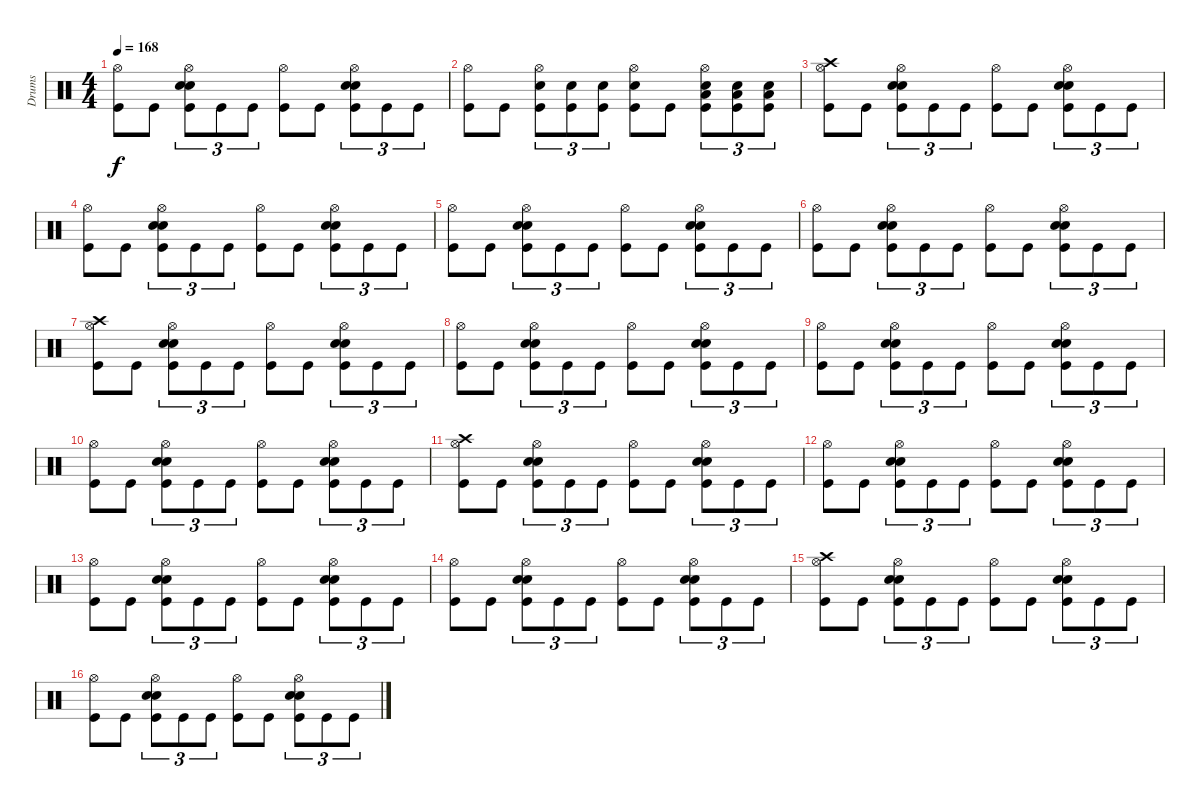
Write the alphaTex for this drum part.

\track ("Drums" "Drums") {instrument percussion}
\staff {score}
\articulation defaults
\ts (4 4)
\tempo 168
\clef neutral
\ks c
("Hi-Hat (open)" "Kick (hit)").8{dy f} "Kick (hit)".8 ("Electric Snare (hit)" "Electric Snare (hit)" "Hi-Hat (open)" "Kick (hit)").8{tu (3 2)} "Kick (hit)".8{tu (3 2)} "Kick (hit)".8{tu (3 2)} ("Hi-Hat (open)" "Kick (hit)").8 "Kick (hit)".8 ("Electric Snare (hit)" "Electric Snare (hit)" "Hi-Hat (open)" "Kick (hit)").8{tu (3 2)} "Kick (hit)".8{tu (3 2)} "Kick (hit)".8{tu (3 2)} |
("Hi-Hat (open)" "Kick (hit)").8 "Kick (hit)".8 ("Electric Snare (hit)" "Hi-Hat (open)" "Kick (hit)").8{tu (3 2)} ("Electric Snare (hit)" "Kick (hit)").8{tu (3 2)} ("Electric Snare (hit)" "Kick (hit)").8{tu (3 2)} ("Electric Snare (hit)" "Hi-Hat (open)" "Kick (hit)").8 "Kick (hit)".8 ("Low Floor Tom (hit)" "Electric Snare (hit)" "Hi-Hat (open)" "Kick (hit)").8{tu (3 2)} ("Low Floor Tom (hit)" "Electric Snare (hit)" "Kick (hit)").8{tu (3 2)} ("Low Floor Tom (hit)" "Electric Snare (hit)" "Kick (hit)").8{tu (3 2)} |
("Crash high (hit)" "Hi-Hat (open)" "Kick (hit)").8 "Kick (hit)".8 ("Electric Snare (hit)" "Electric Snare (hit)" "Hi-Hat (open)" "Kick (hit)").8{tu (3 2)} "Kick (hit)".8{tu (3 2)} "Kick (hit)".8{tu (3 2)} ("Hi-Hat (open)" "Kick (hit)").8 "Kick (hit)".8 ("Electric Snare (hit)" "Electric Snare (hit)" "Hi-Hat (open)" "Kick (hit)").8{tu (3 2)} "Kick (hit)".8{tu (3 2)} "Kick (hit)".8{tu (3 2)} |
("Hi-Hat (open)" "Kick (hit)").8 "Kick (hit)".8 ("Electric Snare (hit)" "Electric Snare (hit)" "Hi-Hat (open)" "Kick (hit)").8{tu (3 2)} "Kick (hit)".8{tu (3 2)} "Kick (hit)".8{tu (3 2)} ("Hi-Hat (open)" "Kick (hit)").8 "Kick (hit)".8 ("Electric Snare (hit)" "Electric Snare (hit)" "Hi-Hat (open)" "Kick (hit)").8{tu (3 2)} "Kick (hit)".8{tu (3 2)} "Kick (hit)".8{tu (3 2)} |
("Hi-Hat (open)" "Kick (hit)").8 "Kick (hit)".8 ("Electric Snare (hit)" "Electric Snare (hit)" "Hi-Hat (open)" "Kick (hit)").8{tu (3 2)} "Kick (hit)".8{tu (3 2)} "Kick (hit)".8{tu (3 2)} ("Hi-Hat (open)" "Kick (hit)").8 "Kick (hit)".8 ("Electric Snare (hit)" "Electric Snare (hit)" "Hi-Hat (open)" "Kick (hit)").8{tu (3 2)} "Kick (hit)".8{tu (3 2)} "Kick (hit)".8{tu (3 2)} |
("Hi-Hat (open)" "Kick (hit)").8 "Kick (hit)".8 ("Electric Snare (hit)" "Electric Snare (hit)" "Hi-Hat (open)" "Kick (hit)").8{tu (3 2)} "Kick (hit)".8{tu (3 2)} "Kick (hit)".8{tu (3 2)} ("Hi-Hat (open)" "Kick (hit)").8 "Kick (hit)".8 ("Electric Snare (hit)" "Electric Snare (hit)" "Hi-Hat (open)" "Kick (hit)").8{tu (3 2)} "Kick (hit)".8{tu (3 2)} "Kick (hit)".8{tu (3 2)} |
("Crash high (hit)" "Hi-Hat (open)" "Kick (hit)").8 "Kick (hit)".8 ("Electric Snare (hit)" "Electric Snare (hit)" "Hi-Hat (open)" "Kick (hit)").8{tu (3 2)} "Kick (hit)".8{tu (3 2)} "Kick (hit)".8{tu (3 2)} ("Hi-Hat (open)" "Kick (hit)").8 "Kick (hit)".8 ("Electric Snare (hit)" "Electric Snare (hit)" "Hi-Hat (open)" "Kick (hit)").8{tu (3 2)} "Kick (hit)".8{tu (3 2)} "Kick (hit)".8{tu (3 2)} |
("Hi-Hat (open)" "Kick (hit)").8 "Kick (hit)".8 ("Electric Snare (hit)" "Electric Snare (hit)" "Hi-Hat (open)" "Kick (hit)").8{tu (3 2)} "Kick (hit)".8{tu (3 2)} "Kick (hit)".8{tu (3 2)} ("Hi-Hat (open)" "Kick (hit)").8 "Kick (hit)".8 ("Electric Snare (hit)" "Electric Snare (hit)" "Hi-Hat (open)" "Kick (hit)").8{tu (3 2)} "Kick (hit)".8{tu (3 2)} "Kick (hit)".8{tu (3 2)} |
("Hi-Hat (open)" "Kick (hit)").8 "Kick (hit)".8 ("Electric Snare (hit)" "Electric Snare (hit)" "Hi-Hat (open)" "Kick (hit)").8{tu (3 2)} "Kick (hit)".8{tu (3 2)} "Kick (hit)".8{tu (3 2)} ("Hi-Hat (open)" "Kick (hit)").8 "Kick (hit)".8 ("Electric Snare (hit)" "Electric Snare (hit)" "Hi-Hat (open)" "Kick (hit)").8{tu (3 2)} "Kick (hit)".8{tu (3 2)} "Kick (hit)".8{tu (3 2)} |
("Hi-Hat (open)" "Kick (hit)").8 "Kick (hit)".8 ("Electric Snare (hit)" "Electric Snare (hit)" "Hi-Hat (open)" "Kick (hit)").8{tu (3 2)} "Kick (hit)".8{tu (3 2)} "Kick (hit)".8{tu (3 2)} ("Hi-Hat (open)" "Kick (hit)").8 "Kick (hit)".8 ("Electric Snare (hit)" "Electric Snare (hit)" "Hi-Hat (open)" "Kick (hit)").8{tu (3 2)} "Kick (hit)".8{tu (3 2)} "Kick (hit)".8{tu (3 2)} |
("Crash high (hit)" "Hi-Hat (open)" "Kick (hit)").8 "Kick (hit)".8 ("Electric Snare (hit)" "Electric Snare (hit)" "Hi-Hat (open)" "Kick (hit)").8{tu (3 2)} "Kick (hit)".8{tu (3 2)} "Kick (hit)".8{tu (3 2)} ("Hi-Hat (open)" "Kick (hit)").8 "Kick (hit)".8 ("Electric Snare (hit)" "Electric Snare (hit)" "Hi-Hat (open)" "Kick (hit)").8{tu (3 2)} "Kick (hit)".8{tu (3 2)} "Kick (hit)".8{tu (3 2)} |
("Hi-Hat (open)" "Kick (hit)").8 "Kick (hit)".8 ("Electric Snare (hit)" "Electric Snare (hit)" "Hi-Hat (open)" "Kick (hit)").8{tu (3 2)} "Kick (hit)".8{tu (3 2)} "Kick (hit)".8{tu (3 2)} ("Hi-Hat (open)" "Kick (hit)").8 "Kick (hit)".8 ("Electric Snare (hit)" "Electric Snare (hit)" "Hi-Hat (open)" "Kick (hit)").8{tu (3 2)} "Kick (hit)".8{tu (3 2)} "Kick (hit)".8{tu (3 2)} |
("Hi-Hat (open)" "Kick (hit)").8 "Kick (hit)".8 ("Electric Snare (hit)" "Electric Snare (hit)" "Hi-Hat (open)" "Kick (hit)").8{tu (3 2)} "Kick (hit)".8{tu (3 2)} "Kick (hit)".8{tu (3 2)} ("Hi-Hat (open)" "Kick (hit)").8 "Kick (hit)".8 ("Electric Snare (hit)" "Electric Snare (hit)" "Hi-Hat (open)" "Kick (hit)").8{tu (3 2)} "Kick (hit)".8{tu (3 2)} "Kick (hit)".8{tu (3 2)} |
("Hi-Hat (open)" "Kick (hit)").8 "Kick (hit)".8 ("Electric Snare (hit)" "Electric Snare (hit)" "Hi-Hat (open)" "Kick (hit)").8{tu (3 2)} "Kick (hit)".8{tu (3 2)} "Kick (hit)".8{tu (3 2)} ("Hi-Hat (open)" "Kick (hit)").8 "Kick (hit)".8 ("Electric Snare (hit)" "Electric Snare (hit)" "Hi-Hat (open)" "Kick (hit)").8{tu (3 2)} "Kick (hit)".8{tu (3 2)} "Kick (hit)".8{tu (3 2)} |
("Crash high (hit)" "Hi-Hat (open)" "Kick (hit)").8 "Kick (hit)".8 ("Electric Snare (hit)" "Electric Snare (hit)" "Hi-Hat (open)" "Kick (hit)").8{tu (3 2)} "Kick (hit)".8{tu (3 2)} "Kick (hit)".8{tu (3 2)} ("Hi-Hat (open)" "Kick (hit)").8 "Kick (hit)".8 ("Electric Snare (hit)" "Electric Snare (hit)" "Hi-Hat (open)" "Kick (hit)").8{tu (3 2)} "Kick (hit)".8{tu (3 2)} "Kick (hit)".8{tu (3 2)} |
("Hi-Hat (open)" "Kick (hit)").8 "Kick (hit)".8 ("Electric Snare (hit)" "Electric Snare (hit)" "Hi-Hat (open)" "Kick (hit)").8{tu (3 2)} "Kick (hit)".8{tu (3 2)} "Kick (hit)".8{tu (3 2)} ("Hi-Hat (open)" "Kick (hit)").8 "Kick (hit)".8 ("Electric Snare (hit)" "Electric Snare (hit)" "Hi-Hat (open)" "Kick (hit)").8{tu (3 2)} "Kick (hit)".8{tu (3 2)} "Kick (hit)".8{tu (3 2)}
